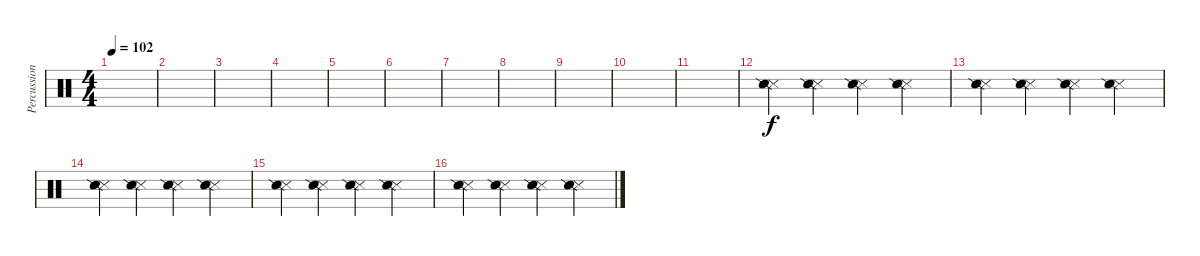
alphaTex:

\track ("Percussion" "Percussion") {instrument percussion}
\staff {score}
\articulation defaults
\ts (4 4)
\tempo 102
\clef neutral
\ks c
|
|
|
|
|
|
|
|
|
|
|
("Metronome (hit)" "Snare (side stick) 2").4 ("Metronome (hit)" "Snare (side stick) 2").4 ("Metronome (hit)" "Snare (side stick) 2").4 ("Metronome (hit)" "Snare (side stick) 2").4 |
("Metronome (hit)" "Snare (side stick) 2").4 ("Metronome (hit)" "Snare (side stick) 2").4 ("Metronome (hit)" "Snare (side stick) 2").4 ("Metronome (hit)" "Snare (side stick) 2").4 |
("Metronome (hit)" "Snare (side stick) 2").4 ("Metronome (hit)" "Snare (side stick) 2").4 ("Metronome (hit)" "Snare (side stick) 2").4 ("Metronome (hit)" "Snare (side stick) 2").4 |
("Metronome (hit)" "Snare (side stick) 2").4 ("Metronome (hit)" "Snare (side stick) 2").4 ("Metronome (hit)" "Snare (side stick) 2").4 ("Metronome (hit)" "Snare (side stick) 2").4 |
("Metronome (hit)" "Snare (side stick) 2").4 ("Metronome (hit)" "Snare (side stick) 2").4 ("Metronome (hit)" "Snare (side stick) 2").4 ("Metronome (hit)" "Snare (side stick) 2").4
